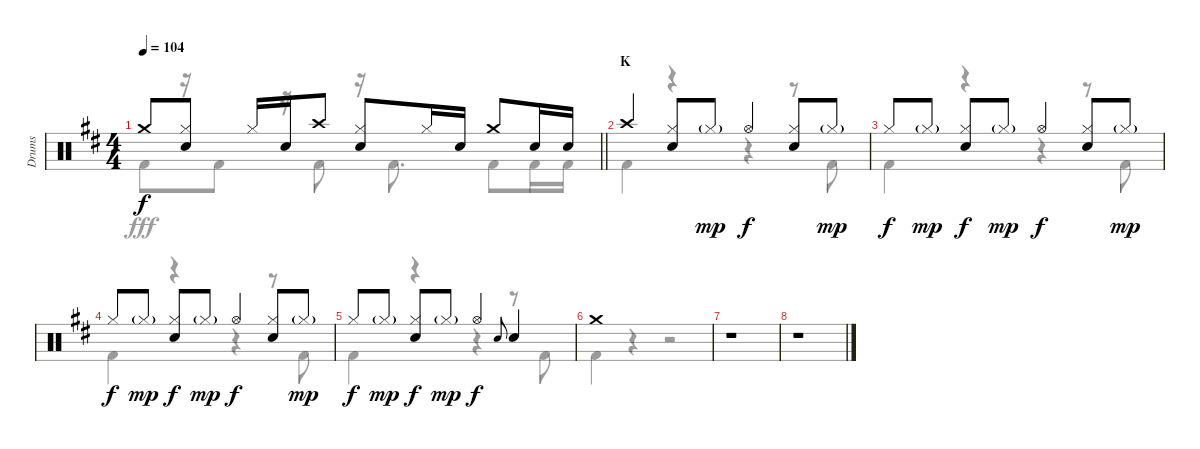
\track ("Drums" "Drums") {instrument percussion}
\staff {score}
\articulation defaults
\voice
\ts (4 4)
\tempo 104
\clef neutral
\barLineRight lightlight
\ks d "Crash medium (hit)".8{dy f}
("Hi-Hat (closed)" "Snare (hit) 2").8 "Hi-Hat (closed)".16 "Snare (hit) 2".16 "Crash high (hit)".8 ("Hi-Hat (closed)" "Snare (hit) 2").8 "Hi-Hat (closed)".16 "Snare (hit) 2".16 "Crash medium (hit)".8 "Snare (hit) 2".16 "Snare (hit) 2".16 |
\section ("" "K")
"Crash high (hit)".4 ("Hi-Hat (closed)" "Snare (hit) 2").8 "Hi-Hat (closed)"{g}.8{dy mp} "Hi-Hat (open)".4{dy f} ("Hi-Hat (closed)" "Snare (hit) 2").8 "Hi-Hat (closed)"{g}.8{dy mp} |
"Hi-Hat (closed)".8{dy f} "Hi-Hat (closed)"{g}.8{dy mp} ("Hi-Hat (closed)" "Snare (hit) 2").8{dy f} "Hi-Hat (closed)"{g}.8{dy mp} "Hi-Hat (open)".4{dy f} ("Hi-Hat (closed)" "Snare (hit) 2").8 "Hi-Hat (closed)"{g}.8{dy mp} |
"Hi-Hat (closed)".8{dy f} "Hi-Hat (closed)"{g}.8{dy mp} ("Hi-Hat (closed)" "Snare (hit) 2").8{dy f} "Hi-Hat (closed)"{g}.8{dy mp} "Hi-Hat (open)".4{dy f} ("Hi-Hat (closed)" "Snare (hit) 2").8 "Hi-Hat (closed)"{g}.8{dy mp} |
"Hi-Hat (closed)".8{dy f} "Hi-Hat (closed)"{g}.8{dy mp} ("Hi-Hat (closed)" "Snare (hit) 2").8{dy f} "Hi-Hat (closed)"{g}.8{dy mp} "Hi-Hat (open)".4{dy f} "Snare (hit) 2".8{gr onbeat} "Snare (hit) 2".4 |
"Crash medium (hit)".1 |
r.1 |
r.1
\voice
\clef neutral
\ottava regular
\simile none
\barLineRight lightlight
\ks d "Kick (hit) 2".8{dy fff}
r.16 "Kick (hit) 2".8 r.16 "Kick (hit) 2".8 r.16 "Kick (hit) 2".8{d} "Kick (hit) 2".8 "Kick (hit) 2".16 "Kick (hit) 2".16 |
"Kick (hit) 2".4 r.4 r.4 r.8 "Kick (hit) 2".8 |
"Kick (hit) 2".4 r.4 r.4 r.8 "Kick (hit) 2".8 |
"Kick (hit) 2".4 r.4 r.4 r.8 "Kick (hit) 2".8 |
"Kick (hit) 2".4 r.4 r.4 r.8 "Kick (hit) 2".8 |
"Kick (hit) 2".4 r.4 r.2 |
r.1 |
r.1
